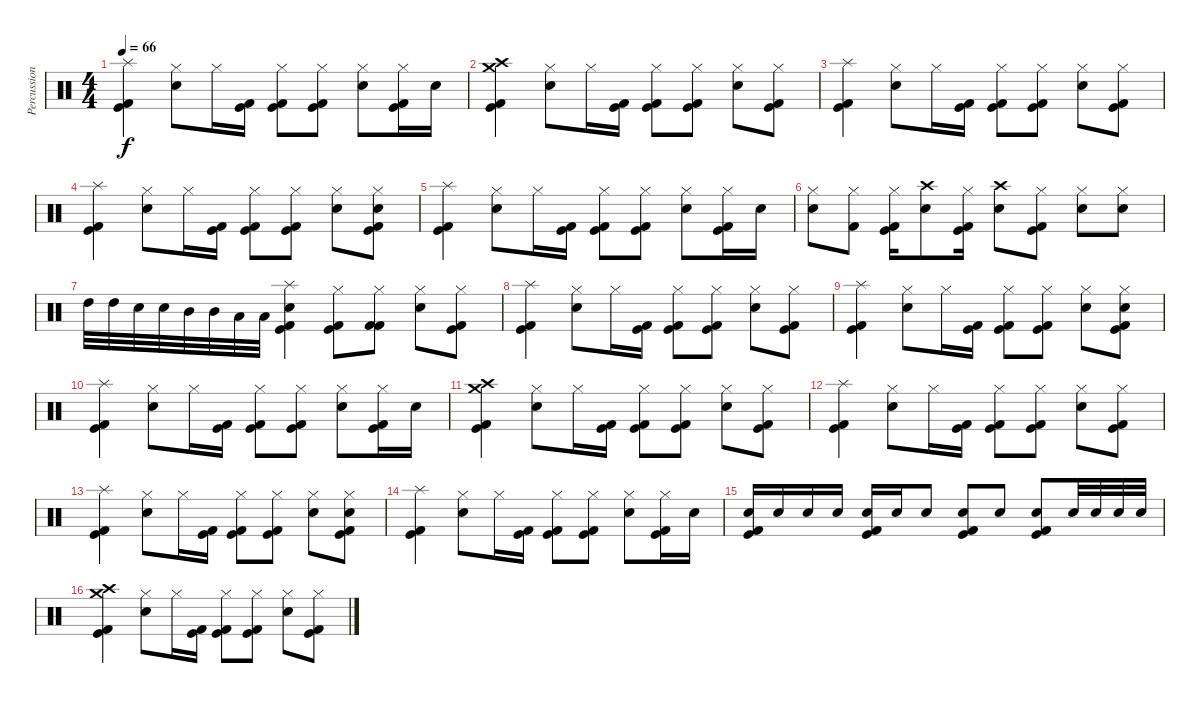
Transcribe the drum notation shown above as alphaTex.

\track ("Percussion" "Percussion") {instrument percussion}
\staff {score}
\articulation defaults
\ts (4 4)
\tempo 66
\clef neutral
\ks c
("Splash (hit)" "Kick (hit) 2" "Kick (hit)").4{dy f} ("Hi-Hat (closed)" "Electric Snare (hit)").8 "Hi-Hat (closed)".16 ("Kick (hit) 2" "Kick (hit)").16 ("Hi-Hat (closed)" "Kick (hit) 2" "Kick (hit)").8 ("Hi-Hat (closed)" "Kick (hit)" "Kick (hit) 2").8 ("Hi-Hat (closed)" "Electric Snare (hit)").8 ("Hi-Hat (closed)" "Kick (hit) 2" "Kick (hit)").16 "Electric Snare (hit)".16 |
("Crash medium (hit)" "Crash high (hit)" "Kick (hit) 2" "Kick (hit)").4 ("Hi-Hat (closed)" "Electric Snare (hit)").8 "Hi-Hat (closed)".16 ("Kick (hit) 2" "Kick (hit)").16 ("Hi-Hat (closed)" "Kick (hit) 2" "Kick (hit)").8 ("Hi-Hat (closed)" "Kick (hit)" "Kick (hit) 2").8 ("Hi-Hat (closed)" "Electric Snare (hit)").8 ("Hi-Hat (closed)" "Kick (hit) 2" "Kick (hit)").8 |
("Splash (hit)" "Kick (hit) 2" "Kick (hit)").4 ("Hi-Hat (closed)" "Electric Snare (hit)").8 "Hi-Hat (closed)".16 ("Kick (hit) 2" "Kick (hit)").16 ("Hi-Hat (closed)" "Kick (hit) 2" "Kick (hit)").8 ("Hi-Hat (closed)" "Kick (hit)" "Kick (hit) 2").8 ("Hi-Hat (closed)" "Electric Snare (hit)").8 ("Hi-Hat (closed)" "Kick (hit) 2" "Kick (hit)").8 |
("Splash (hit)" "Kick (hit) 2" "Kick (hit)").4 ("Hi-Hat (closed)" "Electric Snare (hit)").8 "Hi-Hat (closed)".16 ("Kick (hit) 2" "Kick (hit)").16 ("Hi-Hat (closed)" "Kick (hit) 2" "Kick (hit)").8 ("Hi-Hat (closed)" "Kick (hit)" "Kick (hit) 2").8 ("Hi-Hat (closed)" "Electric Snare (hit)").8 ("Hi-Hat (closed)" "Electric Snare (hit)" "Kick (hit) 2" "Kick (hit)").8 |
("Splash (hit)" "Kick (hit) 2" "Kick (hit)").4 ("Hi-Hat (closed)" "Electric Snare (hit)").8 "Hi-Hat (closed)".16 ("Kick (hit) 2" "Kick (hit)").16 ("Hi-Hat (closed)" "Kick (hit) 2" "Kick (hit)").8 ("Hi-Hat (closed)" "Kick (hit)" "Kick (hit) 2").8 ("Hi-Hat (closed)" "Electric Snare (hit)").8 ("Hi-Hat (closed)" "Kick (hit) 2" "Kick (hit)").16 "Electric Snare (hit)".16 |
("Hi-Hat (closed)" "Snare (hit) 2").8 ("Hi-Hat (closed)" "Kick (hit) 2").8 ("Hi-Hat (closed)" "Kick (hit) 2" "Kick (hit)").16 ("Crash high (hit)" "Snare (hit) 2").8 ("Hi-Hat (closed)" "Kick (hit) 2" "Kick (hit)").16 ("Crash high (hit)" "Snare (hit) 2").8 ("Hi-Hat (closed)" "Kick (hit) 2" "Kick (hit)").8 ("Hi-Hat (closed)" "Snare (hit) 2").8 ("Hi-Hat (closed)" "Snare (hit) 2").8 |
"High Tom (hit)".32 "High Tom (hit)".32 "Electric Snare (hit)".32 "Electric Snare (hit)".32 "Mid Tom (hit)".32 "Mid Tom (hit)".32 "Low Floor Tom (hit)".32 "Low Floor Tom (hit)".32 ("Splash (hit)" "Electric Snare (hit)" "Kick (hit) 2" "Kick (hit)").4 ("Hi-Hat (closed)" "Kick (hit) 2" "Kick (hit)").8 ("Hi-Hat (closed)" "Kick (hit) 2" "Kick (hit) 2").8 ("Hi-Hat (closed)" "Electric Snare (hit)").8 ("Hi-Hat (closed)" "Kick (hit) 2" "Kick (hit)").8 |
("Splash (hit)" "Kick (hit) 2" "Kick (hit)").4 ("Hi-Hat (closed)" "Electric Snare (hit)").8 "Hi-Hat (closed)".16 ("Kick (hit) 2" "Kick (hit)").16 ("Hi-Hat (closed)" "Kick (hit) 2" "Kick (hit)").8 ("Hi-Hat (closed)" "Kick (hit)" "Kick (hit) 2").8 ("Hi-Hat (closed)" "Electric Snare (hit)").8 ("Hi-Hat (closed)" "Kick (hit) 2" "Kick (hit)").8 |
("Splash (hit)" "Kick (hit) 2" "Kick (hit)").4 ("Hi-Hat (closed)" "Electric Snare (hit)").8 "Hi-Hat (closed)".16 ("Kick (hit) 2" "Kick (hit)").16 ("Hi-Hat (closed)" "Kick (hit) 2" "Kick (hit)").8 ("Hi-Hat (closed)" "Kick (hit)" "Kick (hit) 2").8 ("Hi-Hat (closed)" "Electric Snare (hit)").8 ("Hi-Hat (closed)" "Electric Snare (hit)" "Kick (hit) 2" "Kick (hit)").8 |
("Splash (hit)" "Kick (hit) 2" "Kick (hit)").4 ("Hi-Hat (closed)" "Electric Snare (hit)").8 "Hi-Hat (closed)".16 ("Kick (hit) 2" "Kick (hit)").16 ("Hi-Hat (closed)" "Kick (hit) 2" "Kick (hit)").8 ("Hi-Hat (closed)" "Kick (hit)" "Kick (hit) 2").8 ("Hi-Hat (closed)" "Electric Snare (hit)").8 ("Hi-Hat (closed)" "Kick (hit) 2" "Kick (hit)").16 "Electric Snare (hit)".16 |
("Crash medium (hit)" "Crash high (hit)" "Kick (hit) 2" "Kick (hit)").4 ("Hi-Hat (closed)" "Electric Snare (hit)").8 "Hi-Hat (closed)".16 ("Kick (hit) 2" "Kick (hit)").16 ("Hi-Hat (closed)" "Kick (hit) 2" "Kick (hit)").8 ("Hi-Hat (closed)" "Kick (hit)" "Kick (hit) 2").8 ("Hi-Hat (closed)" "Electric Snare (hit)").8 ("Hi-Hat (closed)" "Kick (hit) 2" "Kick (hit)").8 |
("Splash (hit)" "Kick (hit) 2" "Kick (hit)").4 ("Hi-Hat (closed)" "Electric Snare (hit)").8 "Hi-Hat (closed)".16 ("Kick (hit) 2" "Kick (hit)").16 ("Hi-Hat (closed)" "Kick (hit) 2" "Kick (hit)").8 ("Hi-Hat (closed)" "Kick (hit)" "Kick (hit) 2").8 ("Hi-Hat (closed)" "Electric Snare (hit)").8 ("Hi-Hat (closed)" "Kick (hit) 2" "Kick (hit)").8 |
("Splash (hit)" "Kick (hit) 2" "Kick (hit)").4 ("Hi-Hat (closed)" "Electric Snare (hit)").8 "Hi-Hat (closed)".16 ("Kick (hit) 2" "Kick (hit)").16 ("Hi-Hat (closed)" "Kick (hit) 2" "Kick (hit)").8 ("Hi-Hat (closed)" "Kick (hit)" "Kick (hit) 2").8 ("Hi-Hat (closed)" "Electric Snare (hit)").8 ("Hi-Hat (closed)" "Electric Snare (hit)" "Kick (hit) 2" "Kick (hit)").8 |
("Splash (hit)" "Kick (hit) 2" "Kick (hit)").4 ("Hi-Hat (closed)" "Electric Snare (hit)").8 "Hi-Hat (closed)".16 ("Kick (hit) 2" "Kick (hit)").16 ("Hi-Hat (closed)" "Kick (hit) 2" "Kick (hit)").8 ("Hi-Hat (closed)" "Kick (hit)" "Kick (hit) 2").8 ("Hi-Hat (closed)" "Electric Snare (hit)").8 ("Hi-Hat (closed)" "Kick (hit) 2" "Kick (hit)").16 "Electric Snare (hit)".16 |
("Electric Snare (hit)" "Kick (hit) 2" "Kick (hit)").16 "Electric Snare (hit)".16 "Electric Snare (hit)".16 "Electric Snare (hit)".16 ("Electric Snare (hit)" "Kick (hit) 2" "Kick (hit)").16 "Electric Snare (hit)".16 "Electric Snare (hit)".8 ("Electric Snare (hit)" "Kick (hit) 2" "Kick (hit)").8 "Electric Snare (hit)".8 ("Electric Snare (hit)" "Kick (hit) 2" "Kick (hit)").8 "Electric Snare (hit)".32 "Electric Snare (hit)".32 "Electric Snare (hit)".32 "Electric Snare (hit)".32 |
("Crash medium (hit)" "Crash high (hit)" "Kick (hit) 2" "Kick (hit)").4 ("Hi-Hat (closed)" "Electric Snare (hit)").8 "Hi-Hat (closed)".16 ("Kick (hit) 2" "Kick (hit)").16 ("Hi-Hat (closed)" "Kick (hit) 2" "Kick (hit)").8 ("Hi-Hat (closed)" "Kick (hit)" "Kick (hit) 2").8 ("Hi-Hat (closed)" "Electric Snare (hit)").8 ("Hi-Hat (closed)" "Kick (hit) 2" "Kick (hit)").8
